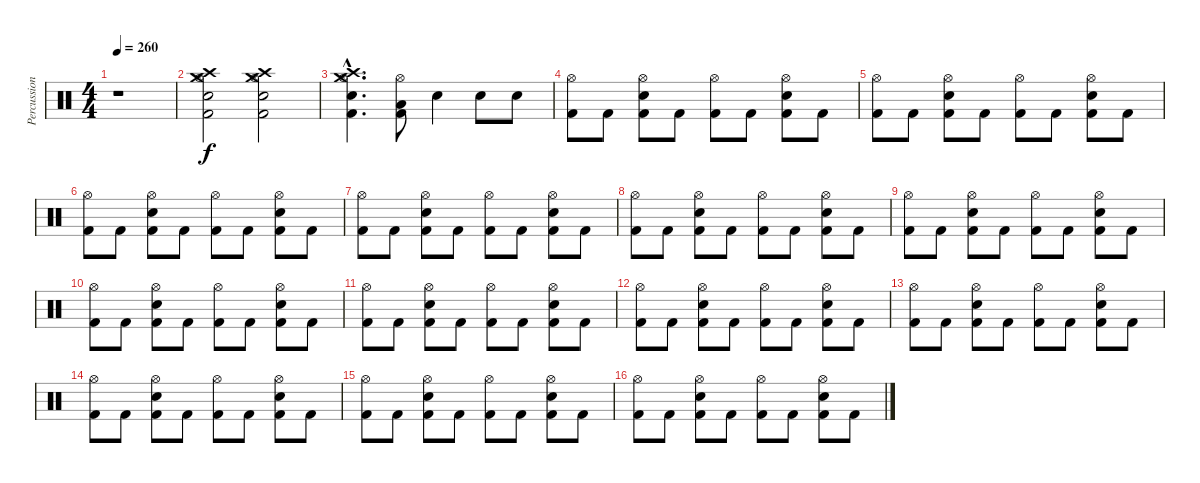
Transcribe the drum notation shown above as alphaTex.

\track ("Percussion" "Percussion") {instrument percussion}
\staff {score}
\articulation defaults
\ts (4 4)
\tempo 260
\clef neutral
\ks c
r.1{dy f} |
("Crash medium (hit)" "Crash high (hit)" "Hi-Hat (open)" "Electric Snare (hit)" "Kick (hit) 2").2 ("Crash medium (hit)" "Crash high (hit)" "Hi-Hat (open)" "Electric Snare (hit)" "Kick (hit) 2").2 |
("Crash medium (hit)"{hac} "Crash high (hit)"{hac} "Hi-Hat (open)"{hac} "Electric Snare (hit)"{hac} "Kick (hit) 2"{hac}).4{d} ("Hi-Hat (open)" "Low Floor Tom (hit)" "Kick (hit) 2").8 "Electric Snare (hit)".4 "Electric Snare (hit)".8 "Electric Snare (hit)".8 |
("Hi-Hat (open)" "Kick (hit) 2").8 "Kick (hit) 2".8 ("Hi-Hat (open)" "Electric Snare (hit)" "Kick (hit) 2").8 "Kick (hit) 2".8 ("Hi-Hat (open)" "Kick (hit) 2").8 "Kick (hit) 2".8 ("Hi-Hat (open)" "Electric Snare (hit)" "Kick (hit) 2").8 "Kick (hit) 2".8 |
("Hi-Hat (open)" "Kick (hit) 2").8 "Kick (hit) 2".8 ("Hi-Hat (open)" "Electric Snare (hit)" "Kick (hit) 2").8 "Kick (hit) 2".8 ("Hi-Hat (open)" "Kick (hit) 2").8 "Kick (hit) 2".8 ("Hi-Hat (open)" "Electric Snare (hit)" "Kick (hit) 2").8 "Kick (hit) 2".8 |
("Hi-Hat (open)" "Kick (hit) 2").8 "Kick (hit) 2".8 ("Hi-Hat (open)" "Electric Snare (hit)" "Kick (hit) 2").8 "Kick (hit) 2".8 ("Hi-Hat (open)" "Kick (hit) 2").8 "Kick (hit) 2".8 ("Hi-Hat (open)" "Electric Snare (hit)" "Kick (hit) 2").8 "Kick (hit) 2".8 |
("Hi-Hat (open)" "Kick (hit) 2").8 "Kick (hit) 2".8 ("Hi-Hat (open)" "Electric Snare (hit)" "Kick (hit) 2").8 "Kick (hit) 2".8 ("Hi-Hat (open)" "Kick (hit) 2").8 "Kick (hit) 2".8 ("Hi-Hat (open)" "Electric Snare (hit)" "Kick (hit) 2").8 "Kick (hit) 2".8 |
("Hi-Hat (open)" "Kick (hit) 2").8 "Kick (hit) 2".8 ("Hi-Hat (open)" "Electric Snare (hit)" "Kick (hit) 2").8 "Kick (hit) 2".8 ("Hi-Hat (open)" "Kick (hit) 2").8 "Kick (hit) 2".8 ("Hi-Hat (open)" "Electric Snare (hit)" "Kick (hit) 2").8 "Kick (hit) 2".8 |
("Hi-Hat (open)" "Kick (hit) 2").8 "Kick (hit) 2".8 ("Hi-Hat (open)" "Electric Snare (hit)" "Kick (hit) 2").8 "Kick (hit) 2".8 ("Hi-Hat (open)" "Kick (hit) 2").8 "Kick (hit) 2".8 ("Hi-Hat (open)" "Electric Snare (hit)" "Kick (hit) 2").8 "Kick (hit) 2".8 |
("Hi-Hat (open)" "Kick (hit) 2").8 "Kick (hit) 2".8 ("Hi-Hat (open)" "Electric Snare (hit)" "Kick (hit) 2").8 "Kick (hit) 2".8 ("Hi-Hat (open)" "Kick (hit) 2").8 "Kick (hit) 2".8 ("Hi-Hat (open)" "Electric Snare (hit)" "Kick (hit) 2").8 "Kick (hit) 2".8 |
("Hi-Hat (open)" "Kick (hit) 2").8 "Kick (hit) 2".8 ("Hi-Hat (open)" "Electric Snare (hit)" "Kick (hit) 2").8 "Kick (hit) 2".8 ("Hi-Hat (open)" "Kick (hit) 2").8 "Kick (hit) 2".8 ("Hi-Hat (open)" "Electric Snare (hit)" "Kick (hit) 2").8 "Kick (hit) 2".8 |
("Hi-Hat (open)" "Kick (hit) 2").8 "Kick (hit) 2".8 ("Hi-Hat (open)" "Electric Snare (hit)" "Kick (hit) 2").8 "Kick (hit) 2".8 ("Hi-Hat (open)" "Kick (hit) 2").8 "Kick (hit) 2".8 ("Hi-Hat (open)" "Electric Snare (hit)" "Kick (hit) 2").8 "Kick (hit) 2".8 |
("Hi-Hat (open)" "Kick (hit) 2").8 "Kick (hit) 2".8 ("Hi-Hat (open)" "Electric Snare (hit)" "Kick (hit) 2").8 "Kick (hit) 2".8 ("Hi-Hat (open)" "Kick (hit) 2").8 "Kick (hit) 2".8 ("Hi-Hat (open)" "Electric Snare (hit)" "Kick (hit) 2").8 "Kick (hit) 2".8 |
("Hi-Hat (open)" "Kick (hit) 2").8 "Kick (hit) 2".8 ("Hi-Hat (open)" "Electric Snare (hit)" "Kick (hit) 2").8 "Kick (hit) 2".8 ("Hi-Hat (open)" "Kick (hit) 2").8 "Kick (hit) 2".8 ("Hi-Hat (open)" "Electric Snare (hit)" "Kick (hit) 2").8 "Kick (hit) 2".8 |
("Hi-Hat (open)" "Kick (hit) 2").8 "Kick (hit) 2".8 ("Hi-Hat (open)" "Electric Snare (hit)" "Kick (hit) 2").8 "Kick (hit) 2".8 ("Hi-Hat (open)" "Kick (hit) 2").8 "Kick (hit) 2".8 ("Hi-Hat (open)" "Electric Snare (hit)" "Kick (hit) 2").8 "Kick (hit) 2".8 |
("Hi-Hat (open)" "Kick (hit) 2").8 "Kick (hit) 2".8 ("Hi-Hat (open)" "Electric Snare (hit)" "Kick (hit) 2").8 "Kick (hit) 2".8 ("Hi-Hat (open)" "Kick (hit) 2").8 "Kick (hit) 2".8 ("Hi-Hat (open)" "Electric Snare (hit)" "Kick (hit) 2").8 "Kick (hit) 2".8
